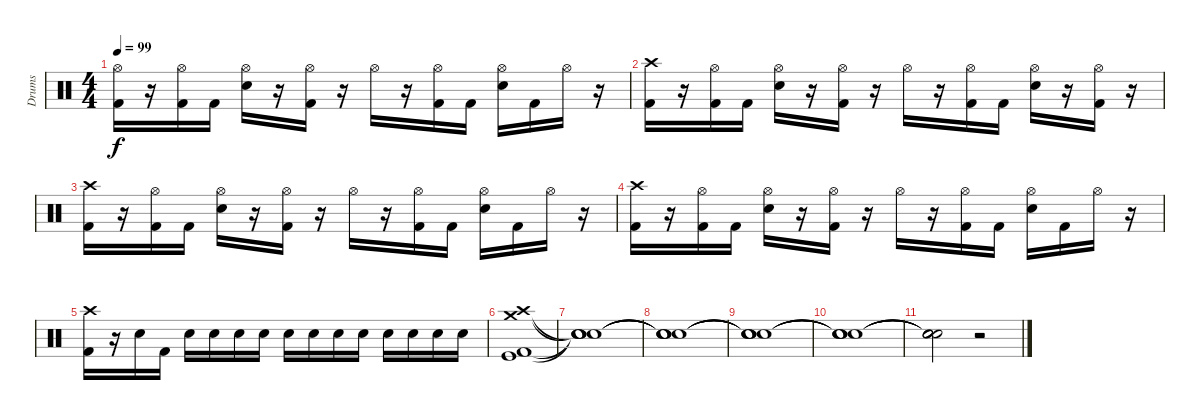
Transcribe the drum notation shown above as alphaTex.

\track ("Drums" "Drums") {instrument percussion}
\staff {score}
\articulation defaults
\ts (4 4)
\tempo 99
\clef neutral
\ks c
("Hi-Hat (open)" "Kick (hit) 2").16{dy f} r.16 ("Hi-Hat (open)" "Kick (hit) 2").16 "Kick (hit) 2".16 ("Hi-Hat (open)" "Electric Snare (hit)").16 r.16 ("Hi-Hat (open)" "Kick (hit) 2").16 r.16 "Hi-Hat (open)".16 r.16 ("Hi-Hat (open)" "Kick (hit) 2").16 "Kick (hit) 2".16 ("Hi-Hat (open)" "Electric Snare (hit)").16 "Kick (hit) 2".16 "Hi-Hat (open)".16 r.16 |
("Crash high (hit)" "Kick (hit) 2").16 r.16 ("Hi-Hat (open)" "Kick (hit) 2").16 "Kick (hit) 2".16 ("Hi-Hat (open)" "Electric Snare (hit)").16 r.16 ("Hi-Hat (open)" "Kick (hit) 2").16 r.16 "Hi-Hat (open)".16 r.16 ("Hi-Hat (open)" "Kick (hit) 2").16 "Kick (hit) 2".16 ("Hi-Hat (open)" "Electric Snare (hit)").16 r.16 ("Hi-Hat (open)" "Kick (hit) 2").16 r.16 |
("Crash high (hit)" "Kick (hit) 2").16 r.16 ("Hi-Hat (open)" "Kick (hit) 2").16 "Kick (hit) 2".16 ("Hi-Hat (open)" "Electric Snare (hit)").16 r.16 ("Hi-Hat (open)" "Kick (hit) 2").16 r.16 "Hi-Hat (open)".16 r.16 ("Hi-Hat (open)" "Kick (hit) 2").16 "Kick (hit) 2".16 ("Hi-Hat (open)" "Electric Snare (hit)").16 "Kick (hit) 2".16 "Hi-Hat (open)".16 r.16 |
("Crash high (hit)" "Kick (hit) 2").16 r.16 ("Hi-Hat (open)" "Kick (hit) 2").16 "Kick (hit) 2".16 ("Hi-Hat (open)" "Electric Snare (hit)").16 r.16 ("Hi-Hat (open)" "Kick (hit) 2").16 r.16 "Hi-Hat (open)".16 r.16 ("Hi-Hat (open)" "Kick (hit) 2").16 "Kick (hit) 2".16 ("Hi-Hat (open)" "Electric Snare (hit)").16 "Kick (hit) 2".16 "Hi-Hat (open)".16 r.16 |
("Crash high (hit)" "Kick (hit) 2").16 r.16 "Snare (hit) 2".16 "Kick (hit) 2".16 "Snare (hit) 2".16 "Snare (hit) 2".16 "Snare (hit) 2".16 "Snare (hit) 2".16 "Snare (hit) 2".16 "Snare (hit) 2".16 "Snare (hit) 2".16 "Snare (hit) 2".16 "Snare (hit) 2".16 "Snare (hit) 2".16 "Snare (hit) 2".16 "Snare (hit) 2".16 |
("Crash high (hit)" "Crash medium (hit)" "Kick (hit)" "Kick (hit) 2").1 |
("Snare (hit)"{t} "Snare (hit)"{t} "Snare (hit)"{t} "Snare (hit)"{t}).1 |
("Snare (hit)"{t} "Snare (hit)"{t} "Snare (hit)"{t} "Snare (hit)"{t}).1 |
("Snare (hit)"{t} "Snare (hit)"{t} "Snare (hit)"{t} "Snare (hit)"{t}).1 |
("Snare (hit)"{t} "Snare (hit)"{t} "Snare (hit)"{t} "Snare (hit)"{t}).1 |
("Snare (hit)"{t} "Snare (hit)"{t} "Snare (hit)"{t} "Snare (hit)"{t}).2 r.2
